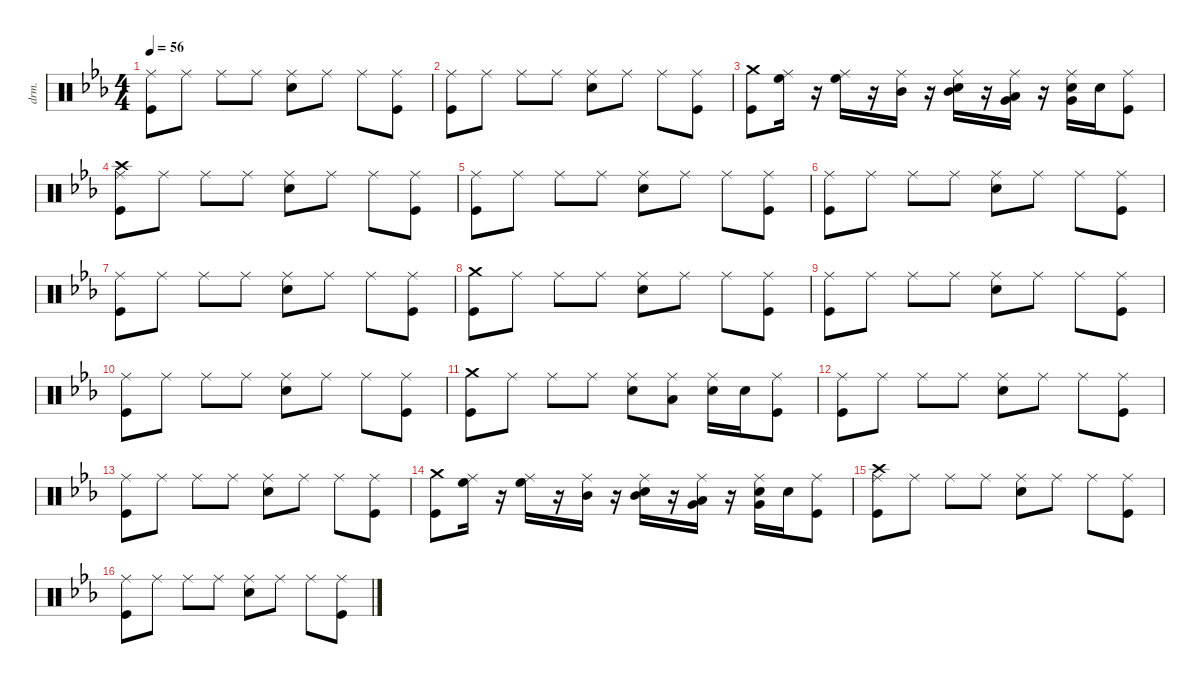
\defaultSystemsLayout 4
\hideDynamics
\bracketExtendMode nobrackets
\otherSystemsTrackNameOrientation horizontal
\track ("Percussion" "drm.") {instrument percussion}
\staff {score}
\articulation defaults
\ts (4 4)
\tempo 56
\clef neutral
\ks cminor
("Ride (middle)"{acc forcenatural} "Kick (hit)"{acc forcenatural}).8{dy f} "Ride (middle)"{acc forcenatural}.8 "Ride (middle)"{acc forcenatural}.8 "Ride (middle)"{acc forcenatural}.8 ("Snare (hit) 2"{acc forcenatural} "Ride (middle)"{acc forcenatural}).8 "Ride (middle)"{acc forcenatural}.8 "Ride (middle)"{acc forcenatural}.8 ("Kick (hit)"{acc forcenatural} "Ride (middle)"{acc forcenatural}).8 |
("Ride (middle)"{acc forcenatural} "Kick (hit)"{acc forcenatural}).8 "Ride (middle)"{acc forcenatural}.8 "Ride (middle)"{acc forcenatural}.8 "Ride (middle)"{acc forcenatural}.8 ("Snare (hit) 2"{acc forcenatural} "Ride (middle)"{acc forcenatural}).8 "Ride (middle)"{acc forcenatural}.8 "Ride (middle)"{acc forcenatural}.8 ("Kick (hit)"{acc forcenatural} "Ride (middle)"{acc forcenatural}).8 |
("Crash medium (hit)"{acc forcenatural} "Kick (hit)"{acc forcenatural}).8 ("High Floor Tom (hit)"{acc forcenatural} "Ride (middle)"{acc forcenatural}).16 r.16 ("High Floor Tom (hit)"{acc forcenatural} "Ride (middle)"{acc forcenatural}).16 r.16 ("Mid Tom (hit)"{acc forcenatural} "Ride (middle)"{acc forcenatural}).16 r.16 ("Mid Tom (hit)"{acc forcenatural} "Snare (hit) 2"{acc forcenatural} "Ride (middle)"{acc forcenatural}).16 r.16 ("Very Low Tom (hit)"{acc forcenatural} "Low Floor Tom (hit)"{acc forcenatural} "Ride (middle)"{acc forcenatural}).16 r.16 ("Very Low Tom (hit)"{acc forcenatural} "Snare (hit) 2"{acc forcenatural} "Ride (middle)"{acc forcenatural}).16 "Snare (hit) 2"{acc forcenatural}.16 ("Kick (hit)"{acc forcenatural} "Ride (middle)"{acc forcenatural}).8 |
("Crash high (hit)"{acc forcenatural} "Kick (hit)"{acc forcenatural} "Ride (middle)"{acc forcenatural}).8 "Ride (middle)"{acc forcenatural}.8 "Ride (middle)"{acc forcenatural}.8 "Ride (middle)"{acc forcenatural}.8 ("Snare (hit) 2"{acc forcenatural} "Ride (middle)"{acc forcenatural}).8 "Ride (middle)"{acc forcenatural}.8 "Ride (middle)"{acc forcenatural}.8 ("Kick (hit)"{acc forcenatural} "Ride (middle)"{acc forcenatural}).8 |
("Ride (middle)"{acc forcenatural} "Kick (hit)"{acc forcenatural}).8 "Ride (middle)"{acc forcenatural}.8 "Ride (middle)"{acc forcenatural}.8 "Ride (middle)"{acc forcenatural}.8 ("Snare (hit) 2"{acc forcenatural} "Ride (middle)"{acc forcenatural}).8 "Ride (middle)"{acc forcenatural}.8 "Ride (middle)"{acc forcenatural}.8 ("Kick (hit)"{acc forcenatural} "Ride (middle)"{acc forcenatural}).8 |
("Ride (middle)"{acc forcenatural} "Kick (hit)"{acc forcenatural}).8 "Ride (middle)"{acc forcenatural}.8 "Ride (middle)"{acc forcenatural}.8 "Ride (middle)"{acc forcenatural}.8 ("Snare (hit) 2"{acc forcenatural} "Ride (middle)"{acc forcenatural}).8 "Ride (middle)"{acc forcenatural}.8 "Ride (middle)"{acc forcenatural}.8 ("Kick (hit)"{acc forcenatural} "Ride (middle)"{acc forcenatural}).8 |
("Ride (middle)"{acc forcenatural} "Kick (hit)"{acc forcenatural}).8 "Ride (middle)"{acc forcenatural}.8 "Ride (middle)"{acc forcenatural}.8 "Ride (middle)"{acc forcenatural}.8 ("Snare (hit) 2"{acc forcenatural} "Ride (middle)"{acc forcenatural}).8 "Ride (middle)"{acc forcenatural}.8 "Ride (middle)"{acc forcenatural}.8 ("Kick (hit)"{acc forcenatural} "Ride (middle)"{acc forcenatural}).8 |
("Crash medium (hit)"{acc forcenatural} "Kick (hit)"{acc forcenatural}).8 "Ride (middle)"{acc forcenatural}.8 "Ride (middle)"{acc forcenatural}.8 "Ride (middle)"{acc forcenatural}.8 ("Snare (hit) 2"{acc forcenatural} "Ride (middle)"{acc forcenatural}).8 "Ride (middle)"{acc forcenatural}.8 "Ride (middle)"{acc forcenatural}.8 ("Kick (hit)"{acc forcenatural} "Ride (middle)"{acc forcenatural}).8 |
("Ride (middle)"{acc forcenatural} "Kick (hit)"{acc forcenatural}).8 "Ride (middle)"{acc forcenatural}.8 "Ride (middle)"{acc forcenatural}.8 "Ride (middle)"{acc forcenatural}.8 ("Snare (hit) 2"{acc forcenatural} "Ride (middle)"{acc forcenatural}).8 "Ride (middle)"{acc forcenatural}.8 "Ride (middle)"{acc forcenatural}.8 ("Kick (hit)"{acc forcenatural} "Ride (middle)"{acc forcenatural}).8 |
("Ride (middle)"{acc forcenatural} "Kick (hit)"{acc forcenatural}).8 "Ride (middle)"{acc forcenatural}.8 "Ride (middle)"{acc forcenatural}.8 "Ride (middle)"{acc forcenatural}.8 ("Snare (hit) 2"{acc forcenatural} "Ride (middle)"{acc forcenatural}).8 "Ride (middle)"{acc forcenatural}.8 "Ride (middle)"{acc forcenatural}.8 ("Kick (hit)"{acc forcenatural} "Ride (middle)"{acc forcenatural}).8 |
("Crash medium (hit)"{acc forcenatural} "Kick (hit)"{acc forcenatural}).8 "Ride (middle)"{acc forcenatural}.8 "Ride (middle)"{acc forcenatural}.8 "Ride (middle)"{acc forcenatural}.8 ("Snare (hit) 2"{acc forcenatural} "Ride (middle)"{acc forcenatural}).8 ("Low Floor Tom (hit)"{acc forcenatural} "Ride (middle)"{acc forcenatural}).8 ("Snare (hit) 2"{acc forcenatural} "Ride (middle)"{acc forcenatural}).16 "Snare (hit) 2"{acc forcenatural}.16 ("Kick (hit)"{acc forcenatural} "Ride (middle)"{acc forcenatural}).8 |
("Ride (middle)"{acc forcenatural} "Kick (hit)"{acc forcenatural}).8 "Ride (middle)"{acc forcenatural}.8 "Ride (middle)"{acc forcenatural}.8 "Ride (middle)"{acc forcenatural}.8 ("Snare (hit) 2"{acc forcenatural} "Ride (middle)"{acc forcenatural}).8 "Ride (middle)"{acc forcenatural}.8 "Ride (middle)"{acc forcenatural}.8 ("Kick (hit)"{acc forcenatural} "Ride (middle)"{acc forcenatural}).8 |
("Ride (middle)"{acc forcenatural} "Kick (hit)"{acc forcenatural}).8 "Ride (middle)"{acc forcenatural}.8 "Ride (middle)"{acc forcenatural}.8 "Ride (middle)"{acc forcenatural}.8 ("Snare (hit) 2"{acc forcenatural} "Ride (middle)"{acc forcenatural}).8 "Ride (middle)"{acc forcenatural}.8 "Ride (middle)"{acc forcenatural}.8 ("Kick (hit)"{acc forcenatural} "Ride (middle)"{acc forcenatural}).8 |
("Crash medium (hit)"{acc forcenatural} "Kick (hit)"{acc forcenatural}).8 ("High Floor Tom (hit)"{acc forcenatural} "Ride (middle)"{acc forcenatural}).16 r.16 ("High Floor Tom (hit)"{acc forcenatural} "Ride (middle)"{acc forcenatural}).16 r.16 ("Mid Tom (hit)"{acc forcenatural} "Ride (middle)"{acc forcenatural}).16 r.16 ("Mid Tom (hit)"{acc forcenatural} "Snare (hit) 2"{acc forcenatural} "Ride (middle)"{acc forcenatural}).16 r.16 ("Very Low Tom (hit)"{acc forcenatural} "Low Floor Tom (hit)"{acc forcenatural} "Ride (middle)"{acc forcenatural}).16 r.16 ("Very Low Tom (hit)"{acc forcenatural} "Snare (hit) 2"{acc forcenatural} "Ride (middle)"{acc forcenatural}).16 "Snare (hit) 2"{acc forcenatural}.16 ("Kick (hit)"{acc forcenatural} "Ride (middle)"{acc forcenatural}).8 |
("Crash high (hit)"{acc forcenatural} "Kick (hit)"{acc forcenatural} "Ride (middle)"{acc forcenatural}).8 "Ride (middle)"{acc forcenatural}.8 "Ride (middle)"{acc forcenatural}.8 "Ride (middle)"{acc forcenatural}.8 ("Snare (hit) 2"{acc forcenatural} "Ride (middle)"{acc forcenatural}).8 "Ride (middle)"{acc forcenatural}.8 "Ride (middle)"{acc forcenatural}.8 ("Kick (hit)"{acc forcenatural} "Ride (middle)"{acc forcenatural}).8 |
("Ride (middle)"{acc forcenatural} "Kick (hit)"{acc forcenatural}).8 "Ride (middle)"{acc forcenatural}.8 "Ride (middle)"{acc forcenatural}.8 "Ride (middle)"{acc forcenatural}.8 ("Snare (hit) 2"{acc forcenatural} "Ride (middle)"{acc forcenatural}).8 "Ride (middle)"{acc forcenatural}.8 "Ride (middle)"{acc forcenatural}.8 ("Kick (hit)"{acc forcenatural} "Ride (middle)"{acc forcenatural}).8
